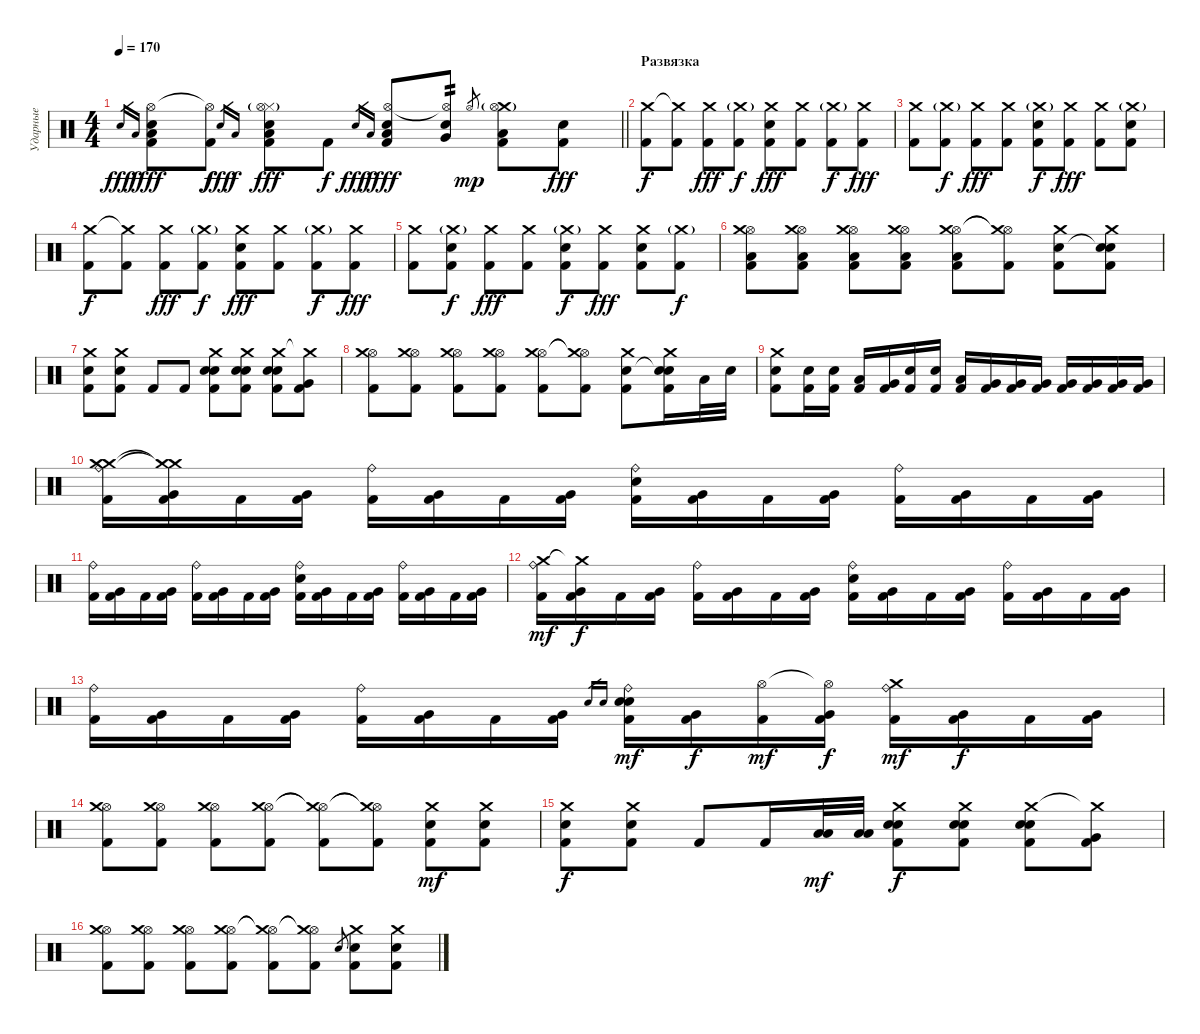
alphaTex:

\track ("Ударные" "Ударные") {instrument percussion}
\staff {score}
\articulation defaults
\ts (4 4)
\tempo 170
\clef neutral
\barLineRight lightlight
\ks c "Electric Snare (hit)".16{gr dy fff} "Low Tom (hit)".16{gr dy f}
("Hi-Hat (open)" "Electric Snare (hit)" "Low Tom (hit)" "Kick (hit) 2").8{dy fff} ("Hi-Hat (open)"{t} "Kick (hit) 2").8{dy f} "Electric Snare (hit)".16{gr dy fff} "Low Tom (hit)".16{gr dy f} ("Hi-Hat (closed)" "Hi-Hat (open)"{g} "Electric Snare (hit)" "Low Tom (hit)" "Kick (hit) 2").8{dy fff} "Kick (hit) 2".8{dy f} "Electric Snare (hit)".16{gr dy fff} "Low Tom (hit)".16{gr dy f} ("Hi-Hat (open)" "Electric Snare (hit)" "Low Tom (hit)" "Kick (hit) 2").8{dy fff} ("Hi-Hat (open)"{t} "Electric Snare (hit)" "Very Low Tom (hit)").8{tp 2} "Hi-Hat (open)".8{gr dy mp} ("Crash medium (hit)" "Hi-Hat (open)"{g} "Low Tom (hit)" "Kick (hit) 2").8 ("Electric Snare (hit)" "Kick (hit) 2").8{dy fff} |
\section ("" "Развязка")
("Crash medium (hit)" "Kick (hit) 2").8{dy f} ("Crash medium (hit)"{t} "Kick (hit) 2").8 ("Crash medium (hit)" "Kick (hit) 2").8{dy fff} ("Crash medium (hit)"{g} "Kick (hit) 2").8{dy f} ("Crash medium (hit)" "Electric Snare (hit)" "Kick (hit) 2").8{dy fff} ("Crash medium (hit)" "Kick (hit) 2").8 ("Crash medium (hit)"{g} "Kick (hit) 2").8{dy f} ("Crash medium (hit)" "Kick (hit) 2").8{dy fff} |
("Crash medium (hit)" "Kick (hit) 2").8 ("Crash medium (hit)"{g} "Kick (hit) 2").8{dy f} ("Crash medium (hit)" "Kick (hit) 2").8{dy fff} ("Crash medium (hit)" "Kick (hit) 2").8 ("Crash medium (hit)"{g} "Electric Snare (hit)" "Kick (hit) 2").8{dy f} ("Crash medium (hit)" "Kick (hit) 2").8{dy fff} ("Crash medium (hit)" "Kick (hit) 2").8 ("Crash medium (hit)"{g} "Electric Snare (hit)" "Kick (hit) 2").8 |
("Crash medium (hit)" "Kick (hit) 2").8{dy f} ("Crash medium (hit)"{t} "Kick (hit) 2").8 ("Crash medium (hit)" "Kick (hit) 2").8{dy fff} ("Crash medium (hit)"{g} "Kick (hit) 2").8{dy f} ("Crash medium (hit)" "Electric Snare (hit)" "Kick (hit) 2").8{dy fff} ("Crash medium (hit)" "Kick (hit) 2").8 ("Crash medium (hit)"{g} "Kick (hit) 2").8{dy f} ("Crash medium (hit)" "Kick (hit) 2").8{dy fff} |
("Crash medium (hit)" "Kick (hit) 2").8 ("Crash medium (hit)"{g} "Electric Snare (hit)" "Kick (hit) 2").8{dy f} ("Crash medium (hit)" "Kick (hit) 2").8{dy fff} ("Crash medium (hit)" "Kick (hit) 2").8 ("Crash medium (hit)"{g} "Electric Snare (hit)" "Kick (hit) 2").8{dy f} ("Crash medium (hit)" "Kick (hit) 2").8{dy fff} ("Crash medium (hit)" "Electric Snare (hit)" "Kick (hit) 2").8 ("Crash medium (hit)"{g} "Kick (hit) 2").8{dy f} |
("Hi-Hat (open)" "Crash medium (hit)" "Low Floor Tom (hit)" "Kick (hit) 2").8 ("Hi-Hat (open)" "Crash medium (hit)" "Low Floor Tom (hit)" "Kick (hit) 2").8 ("Hi-Hat (open)" "Crash medium (hit)" "Low Floor Tom (hit)" "Kick (hit) 2").8 ("Hi-Hat (open)" "Crash medium (hit)" "Low Floor Tom (hit)" "Kick (hit) 2").8 ("Hi-Hat (open)" "Crash medium (hit)" "Low Floor Tom (hit)" "Kick (hit) 2").8 ("Hi-Hat (open)"{t} "Crash medium (hit)"{t} "Kick (hit) 2").8 ("Crash medium (hit)" "Electric Snare (hit)" "Kick (hit) 2").8 ("Crash medium (hit)" "Electric Snare (hit)"{t} "Electric Snare (hit)" "Kick (hit) 2").8 |
("Crash medium (hit)" "Electric Snare (hit)" "Kick (hit) 2").8 ("Crash medium (hit)" "Electric Snare (hit)" "Kick (hit) 2").8 "Kick (hit) 2".8 "Kick (hit) 2".8 ("Crash medium (hit)" "Electric Snare (hit)" "Electric Snare (hit)" "Kick (hit) 2").8 ("Crash medium (hit)" "Electric Snare (hit)" "Electric Snare (hit)" "Kick (hit) 2").8 ("Crash medium (hit)" "Electric Snare (hit)" "Electric Snare (hit)" "Kick (hit) 2").8 ("Crash medium (hit)"{t} "Very Low Tom (hit)" "Kick (hit) 2").8 |
("Hi-Hat (open)" "Crash medium (hit)" "Kick (hit) 2").8 ("Hi-Hat (open)" "Crash medium (hit)" "Kick (hit) 2").8 ("Hi-Hat (open)" "Crash medium (hit)" "Kick (hit) 2").8 ("Hi-Hat (open)" "Crash medium (hit)" "Kick (hit) 2").8 ("Hi-Hat (open)" "Crash medium (hit)" "Kick (hit) 2").8 ("Hi-Hat (open)"{t} "Crash medium (hit)"{t} "Kick (hit) 2").8 ("Crash medium (hit)" "Electric Snare (hit)" "Kick (hit) 2").8 ("Crash medium (hit)" "Electric Snare (hit)"{t} "Electric Snare (hit)" "Kick (hit) 2").16 "Low Tom (hit)".32 "Electric Snare (hit)".32 |
("Crash medium (hit)" "Electric Snare (hit)" "Kick (hit) 2").8 ("Electric Snare (hit)" "Kick (hit) 2").16 ("Electric Snare (hit)" "Kick (hit) 2").16 ("Low Tom (hit)" "Kick (hit) 2").16 ("Very Low Tom (hit)" "Kick (hit) 2").16 ("Electric Snare (hit)" "Kick (hit) 2").16 ("Electric Snare (hit)" "Kick (hit) 2").16 ("Low Tom (hit)" "Kick (hit) 2").16 ("Very Low Tom (hit)" "Kick (hit) 2").16 ("Very Low Tom (hit)" "Kick (hit) 2").16 ("Very Low Tom (hit)" "Kick (hit) 2").16 ("Very Low Tom (hit)" "Kick (hit) 2").16 ("Very Low Tom (hit)" "Kick (hit) 2").16 ("Very Low Tom (hit)" "Kick (hit) 2").16 ("Very Low Tom (hit)" "Kick (hit) 2").16 |
("Ride (bell)" "Crash medium (hit)" "Crash medium (hit)" "Kick (hit) 2").16 ("Crash medium (hit)"{t} "Crash medium (hit)"{t} "Very Low Tom (hit)" "Kick (hit) 2").16 "Kick (hit) 2".16 ("Very Low Tom (hit)" "Kick (hit) 2").16 ("Ride (bell)" "Kick (hit) 2").16 ("Very Low Tom (hit)" "Kick (hit) 2").16 "Kick (hit) 2".16 ("Very Low Tom (hit)" "Kick (hit) 2").16 ("Ride (bell)" "Electric Snare (hit)" "Kick (hit) 2").16 ("Very Low Tom (hit)" "Kick (hit) 2").16 "Kick (hit) 2".16 ("Very Low Tom (hit)" "Kick (hit) 2").16 ("Ride (bell)" "Kick (hit) 2").16 ("Very Low Tom (hit)" "Kick (hit) 2").16 "Kick (hit) 2".16 ("Very Low Tom (hit)" "Kick (hit) 2").16 |
("Ride (bell)" "Kick (hit) 2").16 ("Very Low Tom (hit)" "Kick (hit) 2").16 "Kick (hit) 2".16 ("Very Low Tom (hit)" "Kick (hit) 2").16 ("Ride (bell)" "Kick (hit) 2").16 ("Very Low Tom (hit)" "Kick (hit) 2").16 "Kick (hit) 2".16 ("Very Low Tom (hit)" "Kick (hit) 2").16 ("Ride (bell)" "Electric Snare (hit)" "Kick (hit) 2").16 ("Very Low Tom (hit)" "Kick (hit) 2").16 "Kick (hit) 2".16 ("Very Low Tom (hit)" "Kick (hit) 2").16 ("Ride (bell)" "Kick (hit) 2").16 ("Very Low Tom (hit)" "Kick (hit) 2").16 "Kick (hit) 2".16 ("Very Low Tom (hit)" "Kick (hit) 2").16 |
("Ride (bell)" "Crash medium (hit)" "Kick (hit) 2").16{dy mf} ("Crash medium (hit)"{t} "Very Low Tom (hit)" "Kick (hit) 2").16{dy f} "Kick (hit) 2".16 ("Very Low Tom (hit)" "Kick (hit) 2").16 ("Ride (bell)" "Kick (hit) 2").16 ("Very Low Tom (hit)" "Kick (hit) 2").16 "Kick (hit) 2".16 ("Very Low Tom (hit)" "Kick (hit) 2").16 ("Ride (bell)" "Electric Snare (hit)" "Kick (hit) 2").16 ("Very Low Tom (hit)" "Kick (hit) 2").16 "Kick (hit) 2".16 ("Very Low Tom (hit)" "Kick (hit) 2").16 ("Ride (bell)" "Kick (hit) 2").16 ("Very Low Tom (hit)" "Kick (hit) 2").16 "Kick (hit) 2".16 ("Very Low Tom (hit)" "Kick (hit) 2").16 |
("Ride (bell)" "Kick (hit) 2").16 ("Very Low Tom (hit)" "Kick (hit) 2").16 "Kick (hit) 2".16 ("Very Low Tom (hit)" "Kick (hit) 2").16 ("Ride (bell)" "Kick (hit) 2").16 ("Very Low Tom (hit)" "Kick (hit) 2").16 "Kick (hit) 2".16 ("Very Low Tom (hit)" "Kick (hit) 2").16 "Electric Snare (hit)".16{gr} "Electric Snare (hit)".16{gr} ("Ride (bell)" "Electric Snare (hit)" "Electric Snare (hit)" "Kick (hit) 2").16{dy mf} ("Very Low Tom (hit)" "Kick (hit) 2").16{dy f} ("Hi-Hat (open)" "Kick (hit) 2").16{dy mf} ("Hi-Hat (open)"{t} "Very Low Tom (hit)" "Kick (hit) 2").16{dy f} ("Ride (bell)" "Crash medium (hit)" "Kick (hit) 2").16{dy mf} ("Very Low Tom (hit)" "Kick (hit) 2").16{dy f} "Kick (hit) 2".16 ("Very Low Tom (hit)" "Kick (hit) 2").16 |
("Hi-Hat (open)" "Crash medium (hit)" "Kick (hit) 2").8 ("Hi-Hat (open)" "Crash medium (hit)" "Kick (hit) 2").8 ("Hi-Hat (open)" "Crash medium (hit)" "Kick (hit) 2").8 ("Hi-Hat (open)" "Crash medium (hit)" "Kick (hit) 2").8 ("Hi-Hat (open)"{t} "Crash medium (hit)"{t} "Kick (hit) 2").8 ("Hi-Hat (open)"{t} "Crash medium (hit)"{t} "Kick (hit) 2").8 ("Crash medium (hit)" "Electric Snare (hit)" "Kick (hit) 2").8{dy mf} ("Crash medium (hit)" "Electric Snare (hit)" "Kick (hit) 2").8 |
("Crash medium (hit)" "Electric Snare (hit)" "Kick (hit) 2").8{dy f} ("Crash medium (hit)" "Electric Snare (hit)" "Kick (hit) 2").8 "Kick (hit) 2".8 "Kick (hit) 2".16 ("Low Tom (hit)" "Low Tom (hit)").32{dy mf} ("Low Tom (hit)" "Low Tom (hit)").32 ("Crash medium (hit)" "Electric Snare (hit)" "Electric Snare (hit)" "Kick (hit) 2").8{dy f} ("Crash medium (hit)" "Electric Snare (hit)" "Electric Snare (hit)" "Kick (hit) 2").8 ("Crash medium (hit)" "Electric Snare (hit)" "Electric Snare (hit)" "Kick (hit) 2").8 ("Crash medium (hit)"{t} "Very Low Tom (hit)" "Kick (hit) 2").8 |
("Hi-Hat (open)" "Crash medium (hit)" "Kick (hit) 2").8 ("Hi-Hat (open)" "Crash medium (hit)" "Kick (hit) 2").8 ("Hi-Hat (open)" "Crash medium (hit)" "Kick (hit) 2").8 ("Hi-Hat (open)" "Crash medium (hit)" "Kick (hit) 2").8 ("Hi-Hat (open)"{t} "Crash medium (hit)"{t} "Kick (hit) 2").8 ("Hi-Hat (open)"{t} "Crash medium (hit)"{t} "Kick (hit) 2").8 "Electric Snare (hit)".8{gr} ("Crash medium (hit)" "Electric Snare (hit)" "Kick (hit) 2").8 ("Crash medium (hit)" "Electric Snare (hit)" "Kick (hit) 2").8
